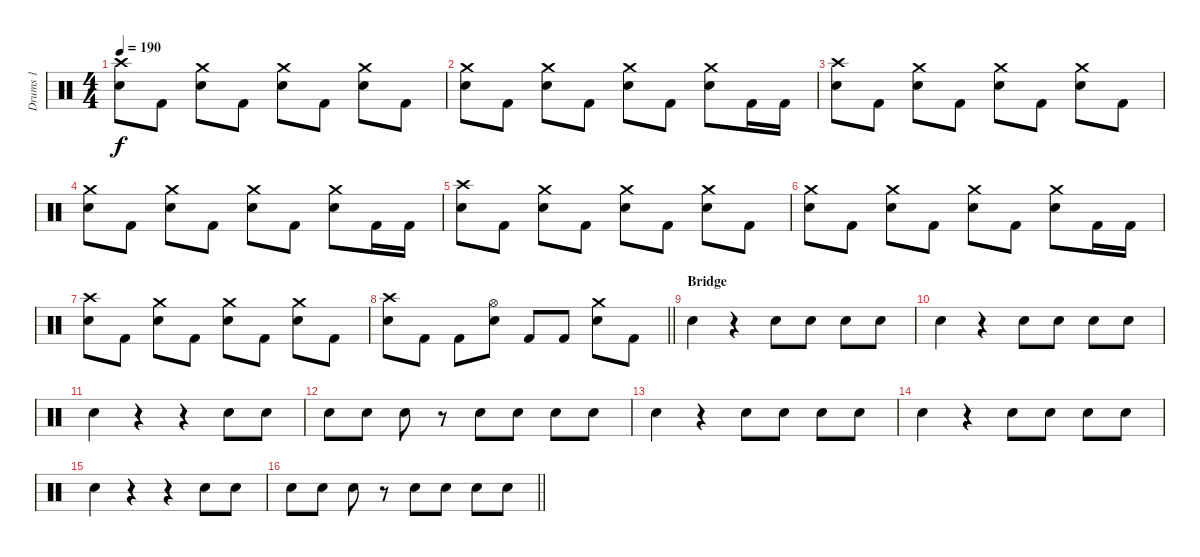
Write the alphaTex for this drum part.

\track ("Drums 1" "Drums 1") {instrument percussion}
\staff {score}
\articulation defaults
\ts (4 4)
\tempo 190
\clef neutral
\ks c
("Crash high (hit)" "Snare (hit) 2").8{dy f} "Kick (hit) 2".8 ("Crash medium (hit)" "Snare (hit) 2").8 "Kick (hit) 2".8 ("Crash medium (hit)" "Snare (hit) 2").8 "Kick (hit) 2".8 ("Crash medium (hit)" "Snare (hit) 2").8 "Kick (hit) 2".8 |
("Crash medium (hit)" "Snare (hit) 2").8 "Kick (hit) 2".8 ("Crash medium (hit)" "Snare (hit) 2").8 "Kick (hit) 2".8 ("Crash medium (hit)" "Snare (hit) 2").8 "Kick (hit) 2".8 ("Crash medium (hit)" "Snare (hit) 2").8 "Kick (hit) 2".16 "Kick (hit) 2".16 |
("Crash high (hit)" "Snare (hit) 2").8 "Kick (hit) 2".8 ("Crash medium (hit)" "Snare (hit) 2").8 "Kick (hit) 2".8 ("Crash medium (hit)" "Snare (hit) 2").8 "Kick (hit) 2".8 ("Crash medium (hit)" "Snare (hit) 2").8 "Kick (hit) 2".8 |
("Crash medium (hit)" "Snare (hit) 2").8 "Kick (hit) 2".8 ("Crash medium (hit)" "Snare (hit) 2").8 "Kick (hit) 2".8 ("Crash medium (hit)" "Snare (hit) 2").8 "Kick (hit) 2".8 ("Crash medium (hit)" "Snare (hit) 2").8 "Kick (hit) 2".16 "Kick (hit) 2".16 |
("Crash high (hit)" "Snare (hit) 2").8 "Kick (hit) 2".8 ("Crash medium (hit)" "Snare (hit) 2").8 "Kick (hit) 2".8 ("Crash medium (hit)" "Snare (hit) 2").8 "Kick (hit) 2".8 ("Crash medium (hit)" "Snare (hit) 2").8 "Kick (hit) 2".8 |
("Crash medium (hit)" "Snare (hit) 2").8 "Kick (hit) 2".8 ("Crash medium (hit)" "Snare (hit) 2").8 "Kick (hit) 2".8 ("Crash medium (hit)" "Snare (hit) 2").8 "Kick (hit) 2".8 ("Crash medium (hit)" "Snare (hit) 2").8 "Kick (hit) 2".16 "Kick (hit) 2".16 |
("Crash high (hit)" "Snare (hit) 2").8 "Kick (hit) 2".8 ("Crash medium (hit)" "Snare (hit) 2").8 "Kick (hit) 2".8 ("Crash medium (hit)" "Snare (hit) 2").8 "Kick (hit) 2".8 ("Crash medium (hit)" "Snare (hit) 2").8 "Kick (hit) 2".8 |
\barLineRight lightlight
("Crash high (hit)" "Snare (hit) 2").8 "Kick (hit) 2".8 "Kick (hit) 2".8 ("Hi-Hat (open)" "Snare (hit) 2").8 "Kick (hit) 2".8 "Kick (hit) 2".8 ("Crash medium (hit)" "Snare (hit) 2").8 "Kick (hit) 2".8 |
\section ("" "Bridge")
"Snare (hit) 2".4 r.4 "Snare (hit) 2".8 "Snare (hit) 2".8 "Snare (hit) 2".8 "Snare (hit) 2".8 |
"Snare (hit) 2".4 r.4 "Snare (hit) 2".8 "Snare (hit) 2".8 "Snare (hit) 2".8 "Snare (hit) 2".8 |
"Snare (hit) 2".4 r.4 r.4 "Snare (hit) 2".8 "Snare (hit) 2".8 |
"Snare (hit) 2".8 "Snare (hit) 2".8 "Snare (hit) 2".8 r.8 "Snare (hit) 2".8 "Snare (hit) 2".8 "Snare (hit) 2".8 "Snare (hit) 2".8 |
"Snare (hit) 2".4 r.4 "Snare (hit) 2".8 "Snare (hit) 2".8 "Snare (hit) 2".8 "Snare (hit) 2".8 |
"Snare (hit) 2".4 r.4 "Snare (hit) 2".8 "Snare (hit) 2".8 "Snare (hit) 2".8 "Snare (hit) 2".8 |
"Snare (hit) 2".4 r.4 r.4 "Snare (hit) 2".8 "Snare (hit) 2".8 |
\barLineRight lightlight "Snare (hit) 2".8 "Snare (hit) 2".8 "Snare (hit) 2".8
r.8 "Snare (hit) 2".8 "Snare (hit) 2".8 "Snare (hit) 2".8 "Snare (hit) 2".8
